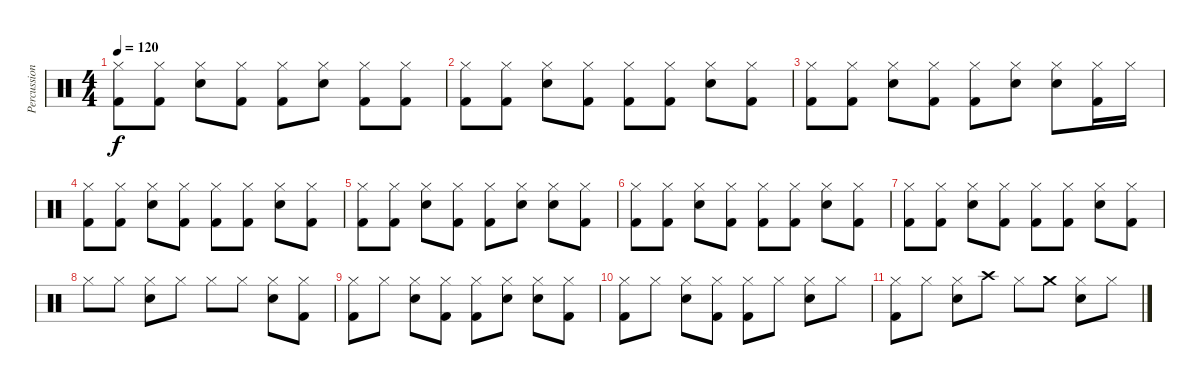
\track ("Percussion" "Percussion") {instrument percussion}
\staff {score}
\articulation defaults
\ts (4 4)
\tempo 120
\clef neutral
\ks c
("Hi-Hat (closed)" "Kick (hit) 2").8{dy f} ("Hi-Hat (closed)" "Kick (hit) 2").8 ("Hi-Hat (closed)" "Electric Snare (hit)").8 ("Hi-Hat (closed)" "Kick (hit) 2").8 ("Hi-Hat (closed)" "Kick (hit) 2").8 ("Hi-Hat (closed)" "Electric Snare (hit)").8 ("Hi-Hat (closed)" "Kick (hit) 2").8 ("Hi-Hat (closed)" "Kick (hit) 2").8 |
("Hi-Hat (closed)" "Kick (hit) 2").8 ("Hi-Hat (closed)" "Kick (hit) 2").8 ("Hi-Hat (closed)" "Electric Snare (hit)").8 ("Hi-Hat (closed)" "Kick (hit) 2").8 ("Hi-Hat (closed)" "Kick (hit) 2").8 ("Hi-Hat (closed)" "Kick (hit) 2").8 ("Hi-Hat (closed)" "Electric Snare (hit)").8 ("Hi-Hat (closed)" "Kick (hit) 2").8 |
("Hi-Hat (closed)" "Kick (hit) 2").8 ("Hi-Hat (closed)" "Kick (hit) 2").8 ("Hi-Hat (closed)" "Electric Snare (hit)").8 ("Hi-Hat (closed)" "Kick (hit) 2").8 ("Hi-Hat (closed)" "Kick (hit) 2").8 ("Hi-Hat (closed)" "Electric Snare (hit)").8 ("Hi-Hat (closed)" "Electric Snare (hit)").8 ("Hi-Hat (closed)" "Kick (hit) 2").16 "Hi-Hat (closed)".16 |
("Hi-Hat (closed)" "Kick (hit) 2").8 ("Hi-Hat (closed)" "Kick (hit) 2").8 ("Hi-Hat (closed)" "Electric Snare (hit)").8 ("Hi-Hat (closed)" "Kick (hit) 2").8 ("Hi-Hat (closed)" "Kick (hit) 2").8 ("Hi-Hat (closed)" "Kick (hit) 2").8 ("Hi-Hat (closed)" "Electric Snare (hit)").8 ("Hi-Hat (closed)" "Kick (hit) 2").8 |
("Hi-Hat (closed)" "Kick (hit) 2").8 ("Hi-Hat (closed)" "Kick (hit) 2").8 ("Hi-Hat (closed)" "Electric Snare (hit)").8 ("Hi-Hat (closed)" "Kick (hit) 2").8 ("Hi-Hat (closed)" "Kick (hit) 2").8 ("Hi-Hat (closed)" "Electric Snare (hit)").8 ("Hi-Hat (closed)" "Electric Snare (hit)").8 ("Hi-Hat (closed)" "Kick (hit) 2").8 |
("Hi-Hat (closed)" "Kick (hit) 2").8 ("Hi-Hat (closed)" "Kick (hit) 2").8 ("Hi-Hat (closed)" "Electric Snare (hit)").8 ("Hi-Hat (closed)" "Kick (hit) 2").8 ("Hi-Hat (closed)" "Kick (hit) 2").8 ("Hi-Hat (closed)" "Kick (hit) 2").8 ("Hi-Hat (closed)" "Electric Snare (hit)").8 ("Hi-Hat (closed)" "Kick (hit) 2").8 |
("Hi-Hat (closed)" "Kick (hit) 2").8 ("Hi-Hat (closed)" "Kick (hit) 2").8 ("Hi-Hat (closed)" "Electric Snare (hit)").8 ("Hi-Hat (closed)" "Kick (hit) 2").8 ("Hi-Hat (closed)" "Kick (hit) 2").8 ("Hi-Hat (closed)" "Kick (hit) 2").8 ("Hi-Hat (closed)" "Electric Snare (hit)").8 ("Hi-Hat (closed)" "Kick (hit) 2").8 |
"Hi-Hat (closed)".8 "Hi-Hat (closed)".8 ("Hi-Hat (closed)" "Electric Snare (hit)").8 "Hi-Hat (closed)".8 "Hi-Hat (closed)".8 "Hi-Hat (closed)".8 ("Hi-Hat (closed)" "Electric Snare (hit)").8 ("Hi-Hat (closed)" "Kick (hit) 2").8 |
("Hi-Hat (closed)" "Kick (hit) 2").8 "Hi-Hat (closed)".8 ("Hi-Hat (closed)" "Electric Snare (hit)").8 ("Hi-Hat (closed)" "Kick (hit) 2").8 ("Hi-Hat (closed)" "Kick (hit) 2").8 ("Hi-Hat (closed)" "Electric Snare (hit)").8 ("Hi-Hat (closed)" "Electric Snare (hit)").8 ("Hi-Hat (closed)" "Kick (hit) 2").8 |
("Hi-Hat (closed)" "Kick (hit) 2").8 "Hi-Hat (closed)".8 ("Hi-Hat (closed)" "Electric Snare (hit)").8 ("Hi-Hat (closed)" "Kick (hit) 2").8 ("Hi-Hat (closed)" "Kick (hit) 2").8 "Hi-Hat (closed)".8 ("Hi-Hat (closed)" "Electric Snare (hit)").8 "Hi-Hat (closed)".8 |
("Hi-Hat (closed)" "Kick (hit) 2").8 "Hi-Hat (closed)".8 ("Hi-Hat (closed)" "Electric Snare (hit)").8 "Crash high (hit)".8 "Hi-Hat (closed)".8 "Crash medium (hit)".8 ("Hi-Hat (closed)" "Electric Snare (hit)").8 "Hi-Hat (closed)".8
